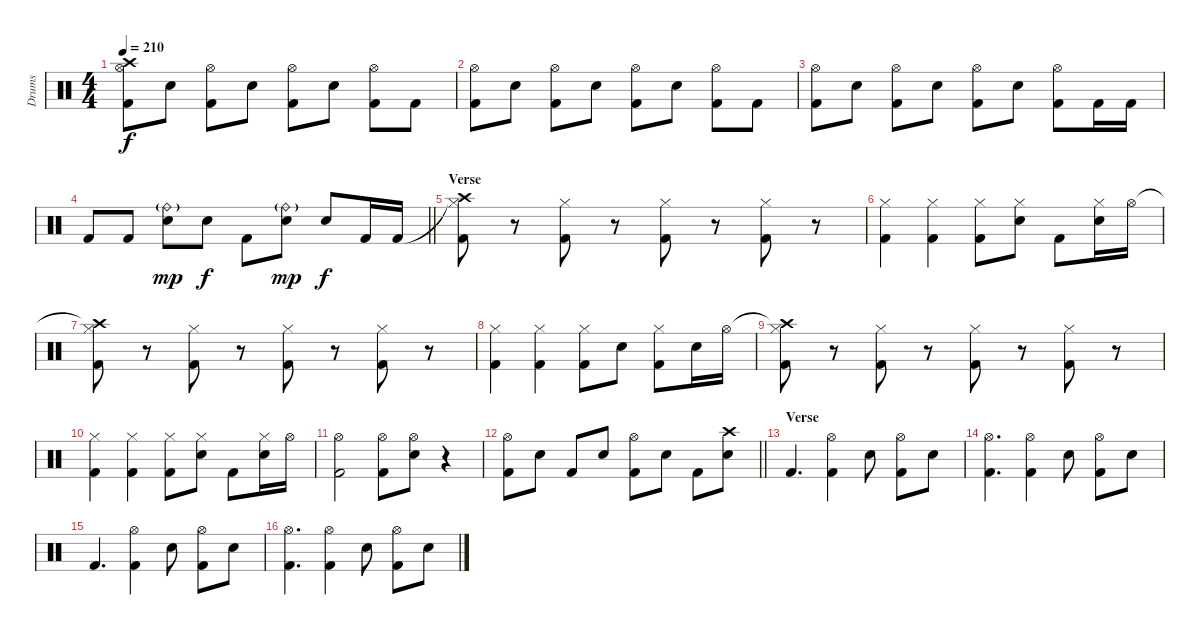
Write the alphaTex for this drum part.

\track ("Drums" "Drums") {instrument percussion}
\staff {score}
\articulation defaults
\ts (4 4)
\tempo 210
\clef neutral
\ks c
("Crash high (hit)" "Hi-Hat (open)" "Kick (hit) 2").8{dy f} "Electric Snare (hit)".8 ("Hi-Hat (open)" "Kick (hit) 2").8 "Electric Snare (hit)".8 ("Hi-Hat (open)" "Kick (hit) 2").8 "Electric Snare (hit)".8 ("Hi-Hat (open)" "Kick (hit) 2").8 "Kick (hit) 2".8 |
("Hi-Hat (open)" "Kick (hit) 2").8 "Electric Snare (hit)".8 ("Hi-Hat (open)" "Kick (hit) 2").8 "Electric Snare (hit)".8 ("Hi-Hat (open)" "Kick (hit) 2").8 "Electric Snare (hit)".8 ("Hi-Hat (open)" "Kick (hit) 2").8 "Kick (hit) 2".8 |
("Hi-Hat (open)" "Kick (hit) 2").8 "Electric Snare (hit)".8 ("Hi-Hat (open)" "Kick (hit) 2").8 "Electric Snare (hit)".8 ("Hi-Hat (open)" "Kick (hit) 2").8 "Electric Snare (hit)".8 ("Hi-Hat (open)" "Kick (hit) 2").8 "Kick (hit) 2".16 "Kick (hit) 2".16 |
\barLineRight lightlight "Kick (hit) 2".8 "Kick (hit) 2".8
("Ride (bell)"{g} "Electric Snare (hit)").8{dy mp} "Electric Snare (hit)".8{dy f} "Kick (hit) 2".8 ("Ride (bell)"{g} "Electric Snare (hit)").8{dy mp} "Electric Snare (hit)".8{dy f} "Kick (hit) 2".16 "Kick (hit) 2".16 |
\section ("" "Verse")
("Crash high (hit)"{t} "Hi-Hat (closed)" "Kick (hit) 2").8 r.8 ("Hi-Hat (closed)" "Kick (hit) 2").8 r.8 ("Hi-Hat (closed)" "Kick (hit) 2").8 r.8 ("Hi-Hat (closed)" "Kick (hit) 2").8 r.8 |
("Hi-Hat (closed)" "Kick (hit) 2").4 ("Hi-Hat (closed)" "Kick (hit) 2").4 ("Hi-Hat (closed)" "Kick (hit) 2").8 ("Hi-Hat (closed)" "Electric Snare (hit)").8 "Kick (hit) 2".8 ("Hi-Hat (closed)" "Electric Snare (hit)").16 "Hi-Hat (open)".16 |
("Crash high (hit)"{t} "Hi-Hat (closed)" "Kick (hit) 2").8 r.8 ("Hi-Hat (closed)" "Kick (hit) 2").8 r.8 ("Hi-Hat (closed)" "Kick (hit) 2").8 r.8 ("Hi-Hat (closed)" "Kick (hit) 2").8 r.8 |
("Hi-Hat (closed)" "Kick (hit) 2").4 ("Hi-Hat (closed)" "Kick (hit) 2").4 ("Hi-Hat (closed)" "Kick (hit) 2").8 "Electric Snare (hit)".8 ("Hi-Hat (closed)" "Kick (hit) 2").8 "Electric Snare (hit)".16 "Hi-Hat (open)".16 |
("Crash high (hit)"{t} "Hi-Hat (closed)" "Kick (hit) 2").8 r.8 ("Hi-Hat (closed)" "Kick (hit) 2").8 r.8 ("Hi-Hat (closed)" "Kick (hit) 2").8 r.8 ("Hi-Hat (closed)" "Kick (hit) 2").8 r.8 |
("Hi-Hat (closed)" "Kick (hit) 2").4 ("Hi-Hat (closed)" "Kick (hit) 2").4 ("Hi-Hat (closed)" "Kick (hit) 2").8 ("Hi-Hat (closed)" "Electric Snare (hit)").8 "Kick (hit) 2".8 ("Hi-Hat (closed)" "Electric Snare (hit)").16 "Hi-Hat (open)".16 |
("Hi-Hat (open)" "Kick (hit) 2").2 ("Hi-Hat (open)" "Kick (hit) 2").8 ("Hi-Hat (open)" "Electric Snare (hit)").8 r.4 |
\barLineRight lightlight
("Hi-Hat (open)" "Kick (hit) 2").8 "Electric Snare (hit)".8 "Kick (hit) 2".8 "Electric Snare (hit)".8 ("Hi-Hat (open)" "Kick (hit) 2").8 "Electric Snare (hit)".8 "Kick (hit) 2".8 ("Crash high (hit)" "Electric Snare (hit)").8 |
\section ("" "Verse")
"Kick (hit) 2".4{d} ("Hi-Hat (open)" "Kick (hit) 2").4 "Electric Snare (hit)".8 ("Hi-Hat (open)" "Kick (hit) 2").8 "Electric Snare (hit)".8 |
("Hi-Hat (open)" "Kick (hit) 2").4{d} ("Hi-Hat (open)" "Kick (hit) 2").4 "Electric Snare (hit)".8 ("Hi-Hat (open)" "Kick (hit) 2").8 "Electric Snare (hit)".8 |
"Kick (hit) 2".4{d} ("Hi-Hat (open)" "Kick (hit) 2").4 "Electric Snare (hit)".8 ("Hi-Hat (open)" "Kick (hit) 2").8 "Electric Snare (hit)".8 |
("Hi-Hat (open)" "Kick (hit) 2").4{d} ("Hi-Hat (open)" "Kick (hit) 2").4 "Electric Snare (hit)".8 ("Hi-Hat (open)" "Kick (hit) 2").8 "Electric Snare (hit)".8
